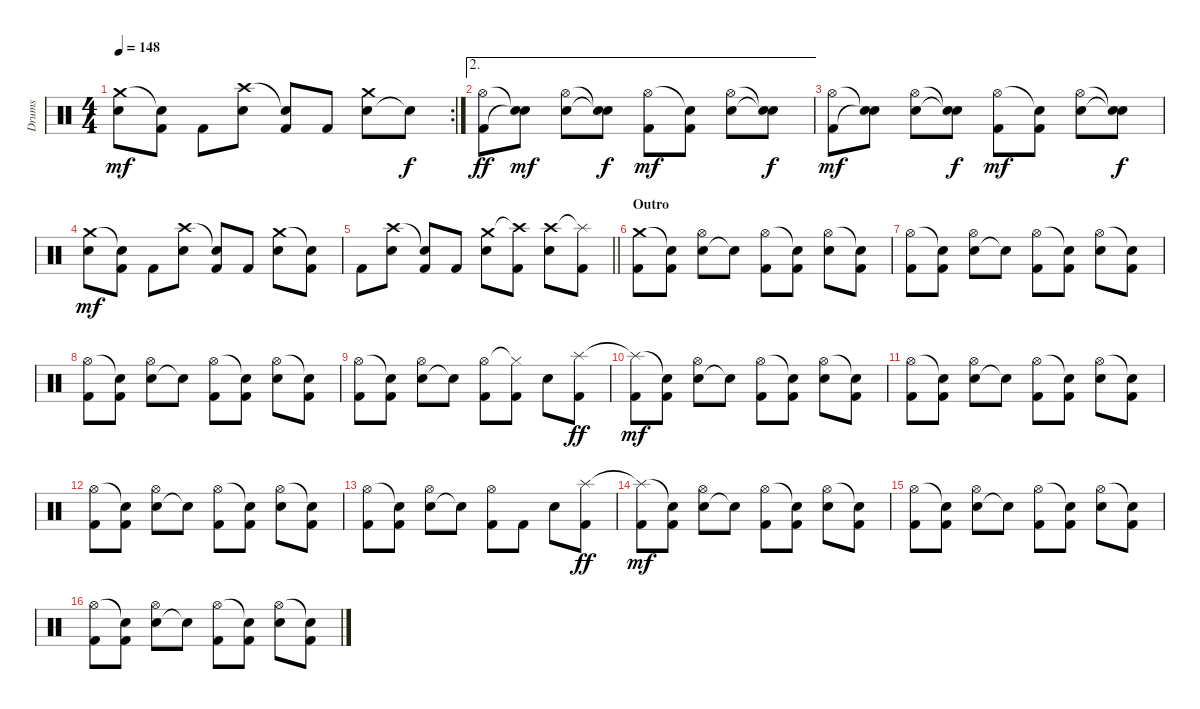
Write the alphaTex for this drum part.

\track ("Drums" "Drums") {instrument percussion}
\staff {score}
\articulation defaults
\rc 2
\ts (4 4)
\tempo 148
\clef neutral
\ks c
("Snare (hit) 2" "Crash medium (hit)").8{dy mf} ("Kick (hit) 2" "Snare (hit)"{t}).8 "Kick (hit) 2".8 ("Snare (hit) 2" "Crash high (hit)").8 ("Kick (hit) 2" "Snare (hit)"{t}).8 "Kick (hit) 2".8 ("Snare (hit) 2" "Crash medium (hit)").8 "Snare (hit)"{t}.8{dy f} |
\ae 2
("Kick (hit) 2" "Hi-Hat (open)").8{dy ff} ("Snare (hit)"{t} "Snare (hit)"{t}).8{dy mf} ("Snare (hit) 2" "Hi-Hat (open)").8 ("Snare (hit)"{t} "Snare (hit)"{t}).8{dy f} ("Kick (hit) 2" "Hi-Hat (open)").8{dy mf} ("Kick (hit) 2" "Snare (hit)"{t}).8 ("Snare (hit) 2" "Hi-Hat (open)").8 ("Snare (hit)"{t} "Snare (hit)"{t}).8{dy f} |
("Kick (hit) 2" "Hi-Hat (open)").8{dy mf} ("Snare (hit)"{t} "Snare (hit)"{t}).8 ("Snare (hit) 2" "Hi-Hat (open)").8 ("Snare (hit)"{t} "Snare (hit)"{t}).8{dy f} ("Kick (hit) 2" "Hi-Hat (open)").8{dy mf} ("Kick (hit) 2" "Snare (hit)"{t}).8 ("Snare (hit) 2" "Hi-Hat (open)").8 ("Snare (hit)"{t} "Snare (hit)"{t}).8{dy f} |
("Snare (hit) 2" "Crash medium (hit)").8{dy mf} ("Kick (hit) 2" "Snare (hit)"{t}).8 "Kick (hit) 2".8 ("Snare (hit) 2" "Crash high (hit)").8 ("Kick (hit) 2" "Snare (hit)"{t}).8 "Kick (hit) 2".8 ("Snare (hit) 2" "Crash medium (hit)").8 ("Kick (hit) 2" "Snare (hit)"{t}).8 |
\barLineRight lightlight "Kick (hit) 2".8
("Snare (hit) 2" "Crash high (hit)").8 ("Kick (hit) 2" "Snare (hit)"{t}).8 "Kick (hit) 2".8 ("Snare (hit) 2" "Crash medium (hit)").8 ("Kick (hit) 2" "Crash high (hit)"{t}).8 ("Snare (hit) 2" "Crash high (hit)").8 ("Kick (hit) 2" "Splash (hit)"{t}).8 |
\section ("" "Outro")
("Kick (hit) 2" "Crash medium (hit)").8 ("Kick (hit) 2" "Snare (hit)"{t}).8 ("Snare (hit) 2" "Hi-Hat (open)").8 "Snare (hit)"{t}.8 ("Kick (hit) 2" "Hi-Hat (open)").8 ("Kick (hit) 2" "Snare (hit)"{t}).8 ("Snare (hit) 2" "Hi-Hat (open)").8 ("Kick (hit) 2" "Snare (hit)"{t}).8 |
("Kick (hit) 2" "Hi-Hat (open)").8 ("Kick (hit) 2" "Snare (hit)"{t}).8 ("Snare (hit) 2" "Hi-Hat (open)").8 "Snare (hit)"{t}.8 ("Kick (hit) 2" "Hi-Hat (open)").8 ("Kick (hit) 2" "Snare (hit)"{t}).8 ("Snare (hit) 2" "Hi-Hat (open)").8 ("Kick (hit) 2" "Snare (hit)"{t}).8 |
("Kick (hit) 2" "Hi-Hat (open)").8 ("Kick (hit) 2" "Snare (hit)"{t}).8 ("Snare (hit) 2" "Hi-Hat (open)").8 "Snare (hit)"{t}.8 ("Kick (hit) 2" "Hi-Hat (open)").8 ("Kick (hit) 2" "Snare (hit)"{t}).8 ("Snare (hit) 2" "Hi-Hat (open)").8 ("Kick (hit) 2" "Snare (hit)"{t}).8 |
("Kick (hit) 2" "Hi-Hat (open)").8 ("Kick (hit) 2" "Snare (hit)"{t}).8 ("Snare (hit) 2" "Hi-Hat (open)").8 "Snare (hit)"{t}.8 ("Kick (hit) 2" "Hi-Hat (open)").8 ("Kick (hit) 2" "Hi-Hat (closed)"{t}).8 "Snare (hit) 2".8 ("Kick (hit) 2" "Splash (hit)").8{dy ff} |
("Kick (hit) 2" "Splash (hit)"{t}).8{dy mf} ("Kick (hit) 2" "Snare (hit)"{t}).8 ("Snare (hit) 2" "Hi-Hat (open)").8 "Snare (hit)"{t}.8 ("Kick (hit) 2" "Hi-Hat (open)").8 ("Kick (hit) 2" "Snare (hit)"{t}).8 ("Snare (hit) 2" "Hi-Hat (open)").8 ("Kick (hit) 2" "Snare (hit)"{t}).8 |
("Kick (hit) 2" "Hi-Hat (open)").8 ("Kick (hit) 2" "Snare (hit)"{t}).8 ("Snare (hit) 2" "Hi-Hat (open)").8 "Snare (hit)"{t}.8 ("Kick (hit) 2" "Hi-Hat (open)").8 ("Kick (hit) 2" "Snare (hit)"{t}).8 ("Snare (hit) 2" "Hi-Hat (open)").8 ("Kick (hit) 2" "Snare (hit)"{t}).8 |
("Kick (hit) 2" "Hi-Hat (open)").8 ("Kick (hit) 2" "Snare (hit)"{t}).8 ("Snare (hit) 2" "Hi-Hat (open)").8 "Snare (hit)"{t}.8 ("Kick (hit) 2" "Hi-Hat (open)").8 ("Kick (hit) 2" "Snare (hit)"{t}).8 ("Snare (hit) 2" "Hi-Hat (open)").8 ("Kick (hit) 2" "Snare (hit)"{t}).8 |
("Kick (hit) 2" "Hi-Hat (open)").8 ("Kick (hit) 2" "Snare (hit)"{t}).8 ("Snare (hit) 2" "Hi-Hat (open)").8 "Snare (hit)"{t}.8 ("Kick (hit) 2" "Hi-Hat (open)").8 "Kick (hit) 2".8 "Snare (hit) 2".8 ("Kick (hit) 2" "Splash (hit)").8{dy ff} |
("Kick (hit) 2" "Splash (hit)"{t}).8{dy mf} ("Kick (hit) 2" "Snare (hit)"{t}).8 ("Snare (hit) 2" "Hi-Hat (open)").8 "Snare (hit)"{t}.8 ("Kick (hit) 2" "Hi-Hat (open)").8 ("Kick (hit) 2" "Snare (hit)"{t}).8 ("Snare (hit) 2" "Hi-Hat (open)").8 ("Kick (hit) 2" "Snare (hit)"{t}).8 |
("Kick (hit) 2" "Hi-Hat (open)").8 ("Kick (hit) 2" "Snare (hit)"{t}).8 ("Snare (hit) 2" "Hi-Hat (open)").8 "Snare (hit)"{t}.8 ("Kick (hit) 2" "Hi-Hat (open)").8 ("Kick (hit) 2" "Snare (hit)"{t}).8 ("Snare (hit) 2" "Hi-Hat (open)").8 ("Kick (hit) 2" "Snare (hit)"{t}).8 |
("Kick (hit) 2" "Hi-Hat (open)").8 ("Kick (hit) 2" "Snare (hit)"{t}).8 ("Snare (hit) 2" "Hi-Hat (open)").8 "Snare (hit)"{t}.8 ("Kick (hit) 2" "Hi-Hat (open)").8 ("Kick (hit) 2" "Snare (hit)"{t}).8 ("Snare (hit) 2" "Hi-Hat (open)").8 ("Kick (hit) 2" "Snare (hit)"{t}).8
